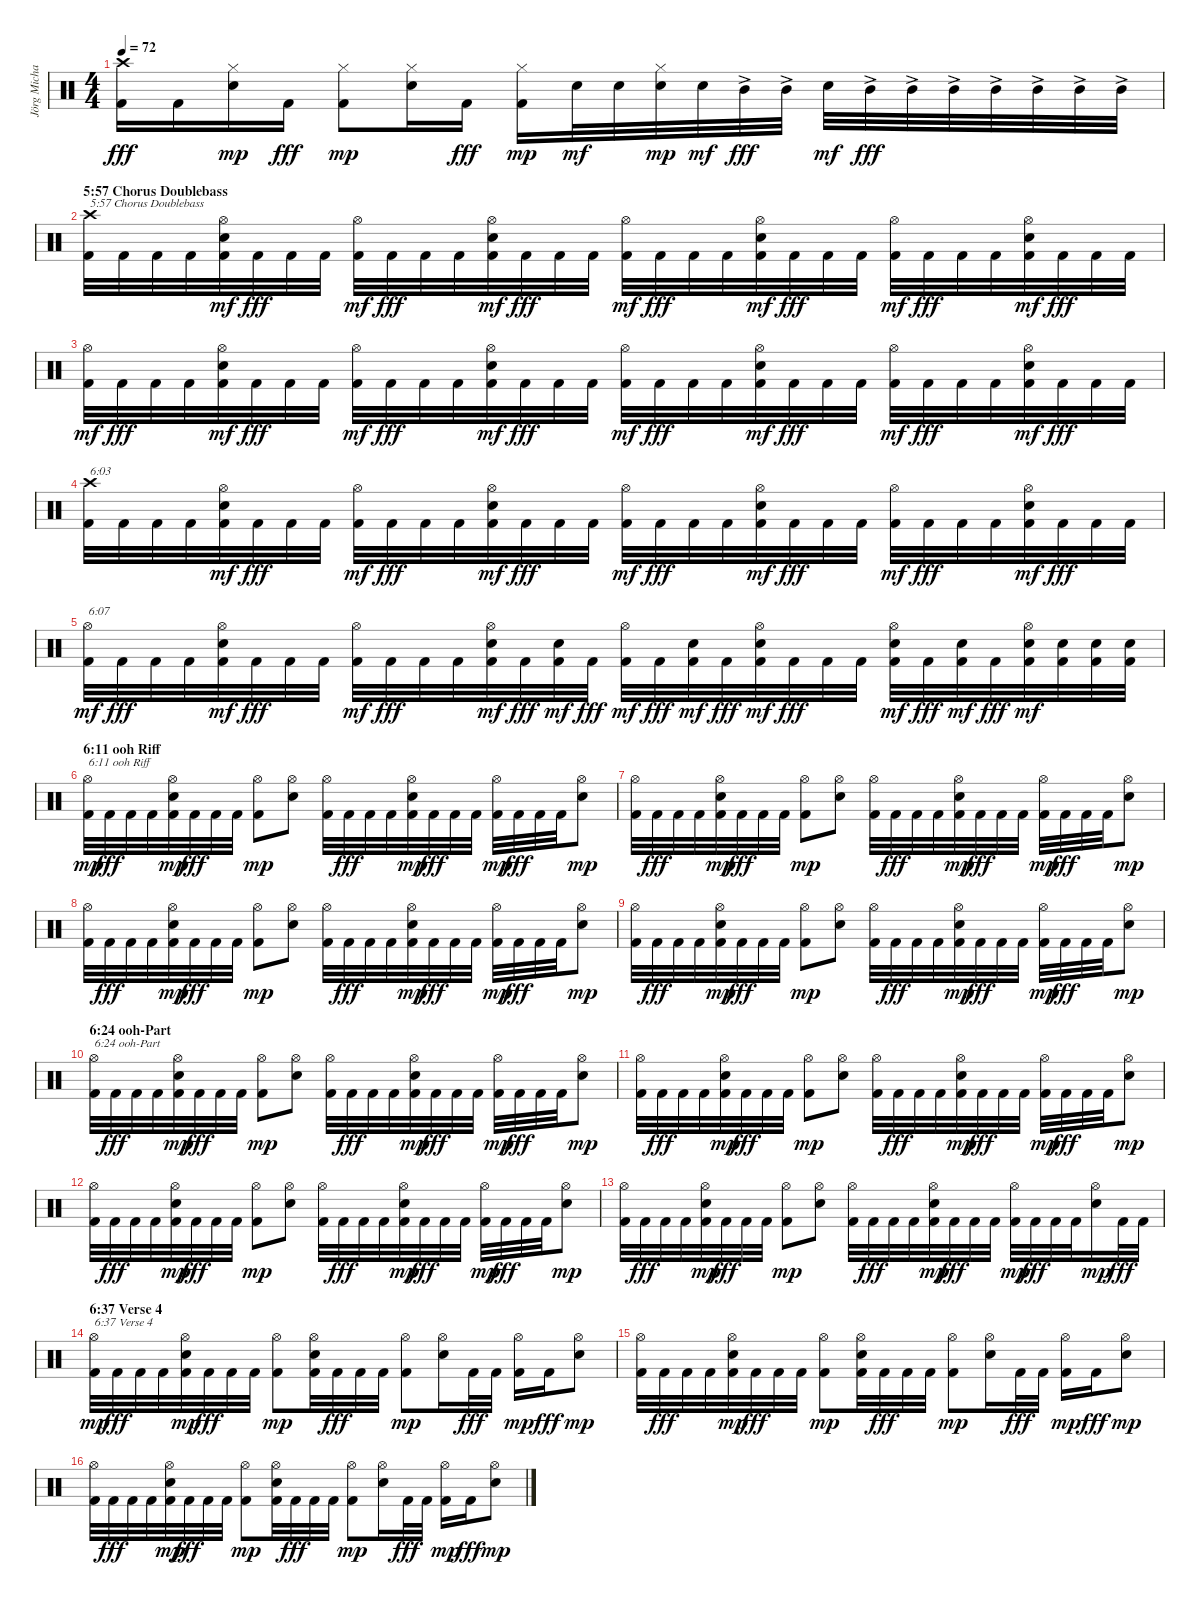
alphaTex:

\track ("Jörg Michael" "Jörg Micha") {instrument percussion}
\staff {score}
\articulation defaults
\ts (4 4)
\tempo 72
\clef neutral
\ks c
("Kick (hit) 2" "Crash high (hit)").16{dy fff} "Kick (hit) 2".16 ("Snare (hit) 2" "Hi-Hat (closed)").16{dy mp} "Kick (hit) 2".16{dy fff} ("Kick (hit) 2" "Hi-Hat (closed)").8{dy mp} ("Snare (hit) 2" "Hi-Hat (closed)").16 "Kick (hit) 2".16{dy fff} ("Kick (hit) 2" "Hi-Hat (closed)").16{dy mp} "Snare (hit) 2".32{dy mf} "Snare (hit) 2".32 ("Snare (hit) 2" "Hi-Hat (closed)").32{dy mp} "Snare (hit) 2".32{dy mf} "Mid Tom (hit)"{ac}.32{dy fff} "Mid Tom (hit)"{ac}.32 "Snare (hit) 2".32{dy mf} "Mid Tom (hit)"{ac}.32{dy fff} "Mid Tom (hit)"{ac}.32 "Mid Tom (hit)"{ac}.32 "Mid Tom (hit)"{ac}.32 "Mid Tom (hit)"{ac}.32 "Mid Tom (hit)"{ac}.32 "Mid Tom (hit)"{ac}.32 |
\section ("" "5:57 Chorus Doublebass")
("Kick (hit) 2" "Crash high (hit)").32{txt "5:57 Chorus Doublebass"} "Kick (hit) 2".32 "Kick (hit) 2".32 "Kick (hit) 2".32 ("Kick (hit) 2" "Snare (hit) 2" "Hi-Hat (open)").32{dy mf} "Kick (hit) 2".32{dy fff} "Kick (hit) 2".32 "Kick (hit) 2".32 ("Kick (hit) 2" "Hi-Hat (open)").32{dy mf} "Kick (hit) 2".32{dy fff} "Kick (hit) 2".32 "Kick (hit) 2".32 ("Kick (hit) 2" "Snare (hit) 2" "Hi-Hat (open)").32{dy mf} "Kick (hit) 2".32{dy fff} "Kick (hit) 2".32 "Kick (hit) 2".32 ("Kick (hit) 2" "Hi-Hat (open)").32{dy mf} "Kick (hit) 2".32{dy fff} "Kick (hit) 2".32 "Kick (hit) 2".32 ("Kick (hit) 2" "Snare (hit) 2" "Hi-Hat (open)").32{dy mf} "Kick (hit) 2".32{dy fff} "Kick (hit) 2".32 "Kick (hit) 2".32 ("Kick (hit) 2" "Hi-Hat (open)").32{dy mf} "Kick (hit) 2".32{dy fff} "Kick (hit) 2".32 "Kick (hit) 2".32 ("Kick (hit) 2" "Snare (hit) 2" "Hi-Hat (open)").32{dy mf} "Kick (hit) 2".32{dy fff} "Kick (hit) 2".32 "Kick (hit) 2".32 |
("Kick (hit) 2" "Hi-Hat (open)").32{dy mf} "Kick (hit) 2".32{dy fff} "Kick (hit) 2".32 "Kick (hit) 2".32 ("Kick (hit) 2" "Snare (hit) 2" "Hi-Hat (open)").32{dy mf} "Kick (hit) 2".32{dy fff} "Kick (hit) 2".32 "Kick (hit) 2".32 ("Kick (hit) 2" "Hi-Hat (open)").32{dy mf} "Kick (hit) 2".32{dy fff} "Kick (hit) 2".32 "Kick (hit) 2".32 ("Kick (hit) 2" "Snare (hit) 2" "Hi-Hat (open)").32{dy mf} "Kick (hit) 2".32{dy fff} "Kick (hit) 2".32 "Kick (hit) 2".32 ("Kick (hit) 2" "Hi-Hat (open)").32{dy mf} "Kick (hit) 2".32{dy fff} "Kick (hit) 2".32 "Kick (hit) 2".32 ("Kick (hit) 2" "Snare (hit) 2" "Hi-Hat (open)").32{dy mf} "Kick (hit) 2".32{dy fff} "Kick (hit) 2".32 "Kick (hit) 2".32 ("Kick (hit) 2" "Hi-Hat (open)").32{dy mf} "Kick (hit) 2".32{dy fff} "Kick (hit) 2".32 "Kick (hit) 2".32 ("Kick (hit) 2" "Snare (hit) 2" "Hi-Hat (open)").32{dy mf} "Kick (hit) 2".32{dy fff} "Kick (hit) 2".32 "Kick (hit) 2".32 |
("Kick (hit) 2" "Crash high (hit)").32{txt "6:03"} "Kick (hit) 2".32 "Kick (hit) 2".32 "Kick (hit) 2".32 ("Kick (hit) 2" "Snare (hit) 2" "Hi-Hat (open)").32{dy mf} "Kick (hit) 2".32{dy fff} "Kick (hit) 2".32 "Kick (hit) 2".32 ("Kick (hit) 2" "Hi-Hat (open)").32{dy mf} "Kick (hit) 2".32{dy fff} "Kick (hit) 2".32 "Kick (hit) 2".32 ("Kick (hit) 2" "Snare (hit) 2" "Hi-Hat (open)").32{dy mf} "Kick (hit) 2".32{dy fff} "Kick (hit) 2".32 "Kick (hit) 2".32 ("Kick (hit) 2" "Hi-Hat (open)").32{dy mf} "Kick (hit) 2".32{dy fff} "Kick (hit) 2".32 "Kick (hit) 2".32 ("Kick (hit) 2" "Snare (hit) 2" "Hi-Hat (open)").32{dy mf} "Kick (hit) 2".32{dy fff} "Kick (hit) 2".32 "Kick (hit) 2".32 ("Kick (hit) 2" "Hi-Hat (open)").32{dy mf} "Kick (hit) 2".32{dy fff} "Kick (hit) 2".32 "Kick (hit) 2".32 ("Kick (hit) 2" "Snare (hit) 2" "Hi-Hat (open)").32{dy mf} "Kick (hit) 2".32{dy fff} "Kick (hit) 2".32 "Kick (hit) 2".32 |
("Kick (hit) 2" "Hi-Hat (open)").32{txt "6:07" dy mf} "Kick (hit) 2".32{dy fff} "Kick (hit) 2".32 "Kick (hit) 2".32 ("Kick (hit) 2" "Snare (hit) 2" "Hi-Hat (open)").32{dy mf} "Kick (hit) 2".32{dy fff} "Kick (hit) 2".32 "Kick (hit) 2".32 ("Kick (hit) 2" "Hi-Hat (open)").32{dy mf} "Kick (hit) 2".32{dy fff} "Kick (hit) 2".32 "Kick (hit) 2".32 ("Kick (hit) 2" "Snare (hit) 2" "Hi-Hat (open)").32{dy mf} "Kick (hit) 2".32{dy fff} ("Kick (hit) 2" "Snare (hit) 2").32{dy mf} "Kick (hit) 2".32{dy fff} ("Kick (hit) 2" "Hi-Hat (open)").32{dy mf} "Kick (hit) 2".32{dy fff} ("Kick (hit) 2" "Snare (hit) 2").32{dy mf} "Kick (hit) 2".32{dy fff} ("Kick (hit) 2" "Snare (hit) 2" "Hi-Hat (open)").32{dy mf} "Kick (hit) 2".32{dy fff} "Kick (hit) 2".32 "Kick (hit) 2".32 ("Kick (hit) 2" "Snare (hit) 2" "Hi-Hat (open)").32{dy mf} "Kick (hit) 2".32{dy fff} ("Kick (hit) 2" "Snare (hit) 2").32{dy mf} "Kick (hit) 2".32{dy fff} ("Kick (hit) 2" "Snare (hit) 2" "Hi-Hat (open)").32{dy mf} ("Kick (hit) 2" "Snare (hit) 2").32 ("Kick (hit) 2" "Snare (hit) 2").32 ("Kick (hit) 2" "Snare (hit) 2").32 |
\section ("" "6:11 ooh Riff")
("Kick (hit) 2" "Hi-Hat (open)").32{txt "6:11 ooh Riff" dy mp} "Kick (hit) 2".32{dy fff} "Kick (hit) 2".32 "Kick (hit) 2".32 ("Kick (hit) 2" "Snare (hit) 2" "Hi-Hat (open)").32{dy mp} "Kick (hit) 2".32{dy fff} "Kick (hit) 2".32 "Kick (hit) 2".32 ("Kick (hit) 2" "Hi-Hat (open)").8{dy mp} ("Snare (hit) 2" "Hi-Hat (open)").8 ("Kick (hit) 2" "Hi-Hat (open)").32 "Kick (hit) 2".32{dy fff} "Kick (hit) 2".32 "Kick (hit) 2".32 ("Kick (hit) 2" "Snare (hit) 2" "Hi-Hat (open)").32{dy mp} "Kick (hit) 2".32{dy fff} "Kick (hit) 2".32 "Kick (hit) 2".32 ("Kick (hit) 2" "Hi-Hat (open)").32{dy mp} "Kick (hit) 2".32{dy fff} "Kick (hit) 2".32 "Kick (hit) 2".32 ("Snare (hit) 2" "Hi-Hat (open)").8{dy mp} |
("Kick (hit) 2" "Hi-Hat (open)").32 "Kick (hit) 2".32{dy fff} "Kick (hit) 2".32 "Kick (hit) 2".32 ("Kick (hit) 2" "Snare (hit) 2" "Hi-Hat (open)").32{dy mp} "Kick (hit) 2".32{dy fff} "Kick (hit) 2".32 "Kick (hit) 2".32 ("Kick (hit) 2" "Hi-Hat (open)").8{dy mp} ("Snare (hit) 2" "Hi-Hat (open)").8 ("Kick (hit) 2" "Hi-Hat (open)").32 "Kick (hit) 2".32{dy fff} "Kick (hit) 2".32 "Kick (hit) 2".32 ("Kick (hit) 2" "Snare (hit) 2" "Hi-Hat (open)").32{dy mp} "Kick (hit) 2".32{dy fff} "Kick (hit) 2".32 "Kick (hit) 2".32 ("Kick (hit) 2" "Hi-Hat (open)").32{dy mp} "Kick (hit) 2".32{dy fff} "Kick (hit) 2".32 "Kick (hit) 2".32 ("Snare (hit) 2" "Hi-Hat (open)").8{dy mp} |
("Kick (hit) 2" "Hi-Hat (open)").32 "Kick (hit) 2".32{dy fff} "Kick (hit) 2".32 "Kick (hit) 2".32 ("Kick (hit) 2" "Snare (hit) 2" "Hi-Hat (open)").32{dy mp} "Kick (hit) 2".32{dy fff} "Kick (hit) 2".32 "Kick (hit) 2".32 ("Kick (hit) 2" "Hi-Hat (open)").8{dy mp} ("Snare (hit) 2" "Hi-Hat (open)").8 ("Kick (hit) 2" "Hi-Hat (open)").32 "Kick (hit) 2".32{dy fff} "Kick (hit) 2".32 "Kick (hit) 2".32 ("Kick (hit) 2" "Snare (hit) 2" "Hi-Hat (open)").32{dy mp} "Kick (hit) 2".32{dy fff} "Kick (hit) 2".32 "Kick (hit) 2".32 ("Kick (hit) 2" "Hi-Hat (open)").32{dy mp} "Kick (hit) 2".32{dy fff} "Kick (hit) 2".32 "Kick (hit) 2".32 ("Snare (hit) 2" "Hi-Hat (open)").8{dy mp} |
("Kick (hit) 2" "Hi-Hat (open)").32 "Kick (hit) 2".32{dy fff} "Kick (hit) 2".32 "Kick (hit) 2".32 ("Kick (hit) 2" "Snare (hit) 2" "Hi-Hat (open)").32{dy mp} "Kick (hit) 2".32{dy fff} "Kick (hit) 2".32 "Kick (hit) 2".32 ("Kick (hit) 2" "Hi-Hat (open)").8{dy mp} ("Snare (hit) 2" "Hi-Hat (open)").8 ("Kick (hit) 2" "Hi-Hat (open)").32 "Kick (hit) 2".32{dy fff} "Kick (hit) 2".32 "Kick (hit) 2".32 ("Kick (hit) 2" "Snare (hit) 2" "Hi-Hat (open)").32{dy mp} "Kick (hit) 2".32{dy fff} "Kick (hit) 2".32 "Kick (hit) 2".32 ("Kick (hit) 2" "Hi-Hat (open)").32{dy mp} "Kick (hit) 2".32{dy fff} "Kick (hit) 2".32 "Kick (hit) 2".32 ("Snare (hit) 2" "Hi-Hat (open)").8{dy mp} |
\section ("" "6:24 ooh-Part")
("Kick (hit) 2" "Hi-Hat (open)").32{txt "6:24 ooh-Part"} "Kick (hit) 2".32{dy fff} "Kick (hit) 2".32 "Kick (hit) 2".32 ("Kick (hit) 2" "Snare (hit) 2" "Hi-Hat (open)").32{dy mp} "Kick (hit) 2".32{dy fff} "Kick (hit) 2".32 "Kick (hit) 2".32 ("Kick (hit) 2" "Hi-Hat (open)").8{dy mp} ("Snare (hit) 2" "Hi-Hat (open)").8 ("Kick (hit) 2" "Hi-Hat (open)").32 "Kick (hit) 2".32{dy fff} "Kick (hit) 2".32 "Kick (hit) 2".32 ("Kick (hit) 2" "Snare (hit) 2" "Hi-Hat (open)").32{dy mp} "Kick (hit) 2".32{dy fff} "Kick (hit) 2".32 "Kick (hit) 2".32 ("Kick (hit) 2" "Hi-Hat (open)").32{dy mp} "Kick (hit) 2".32{dy fff} "Kick (hit) 2".32 "Kick (hit) 2".32 ("Snare (hit) 2" "Hi-Hat (open)").8{dy mp} |
("Kick (hit) 2" "Hi-Hat (open)").32 "Kick (hit) 2".32{dy fff} "Kick (hit) 2".32 "Kick (hit) 2".32 ("Kick (hit) 2" "Snare (hit) 2" "Hi-Hat (open)").32{dy mp} "Kick (hit) 2".32{dy fff} "Kick (hit) 2".32 "Kick (hit) 2".32 ("Kick (hit) 2" "Hi-Hat (open)").8{dy mp} ("Snare (hit) 2" "Hi-Hat (open)").8 ("Kick (hit) 2" "Hi-Hat (open)").32 "Kick (hit) 2".32{dy fff} "Kick (hit) 2".32 "Kick (hit) 2".32 ("Kick (hit) 2" "Snare (hit) 2" "Hi-Hat (open)").32{dy mp} "Kick (hit) 2".32{dy fff} "Kick (hit) 2".32 "Kick (hit) 2".32 ("Kick (hit) 2" "Hi-Hat (open)").32{dy mp} "Kick (hit) 2".32{dy fff} "Kick (hit) 2".32 "Kick (hit) 2".32 ("Snare (hit) 2" "Hi-Hat (open)").8{dy mp} |
("Kick (hit) 2" "Hi-Hat (open)").32 "Kick (hit) 2".32{dy fff} "Kick (hit) 2".32 "Kick (hit) 2".32 ("Kick (hit) 2" "Snare (hit) 2" "Hi-Hat (open)").32{dy mp} "Kick (hit) 2".32{dy fff} "Kick (hit) 2".32 "Kick (hit) 2".32 ("Kick (hit) 2" "Hi-Hat (open)").8{dy mp} ("Snare (hit) 2" "Hi-Hat (open)").8 ("Kick (hit) 2" "Hi-Hat (open)").32 "Kick (hit) 2".32{dy fff} "Kick (hit) 2".32 "Kick (hit) 2".32 ("Kick (hit) 2" "Snare (hit) 2" "Hi-Hat (open)").32{dy mp} "Kick (hit) 2".32{dy fff} "Kick (hit) 2".32 "Kick (hit) 2".32 ("Kick (hit) 2" "Hi-Hat (open)").32{dy mp} "Kick (hit) 2".32{dy fff} "Kick (hit) 2".32 "Kick (hit) 2".32 ("Snare (hit) 2" "Hi-Hat (open)").8{dy mp} |
("Kick (hit) 2" "Hi-Hat (open)").32 "Kick (hit) 2".32{dy fff} "Kick (hit) 2".32 "Kick (hit) 2".32 ("Kick (hit) 2" "Snare (hit) 2" "Hi-Hat (open)").32{dy mp} "Kick (hit) 2".32{dy fff} "Kick (hit) 2".32 "Kick (hit) 2".32 ("Kick (hit) 2" "Hi-Hat (open)").8{dy mp} ("Snare (hit) 2" "Hi-Hat (open)").8 ("Kick (hit) 2" "Hi-Hat (open)").32 "Kick (hit) 2".32{dy fff} "Kick (hit) 2".32 "Kick (hit) 2".32 ("Kick (hit) 2" "Snare (hit) 2" "Hi-Hat (open)").32{dy mp} "Kick (hit) 2".32{dy fff} "Kick (hit) 2".32 "Kick (hit) 2".32 ("Kick (hit) 2" "Hi-Hat (open)").32{dy mp} "Kick (hit) 2".32{dy fff} "Kick (hit) 2".32 "Kick (hit) 2".32 ("Snare (hit) 2" "Hi-Hat (open)").16{dy mp} "Kick (hit) 2".32{dy fff} "Kick (hit) 2".32 |
\section ("" "6:37 Verse 4")
("Kick (hit) 2" "Hi-Hat (open)").32{txt "6:37 Verse 4" dy mp} "Kick (hit) 2".32{dy fff} "Kick (hit) 2".32 "Kick (hit) 2".32 ("Kick (hit) 2" "Snare (hit) 2" "Hi-Hat (open)").32{dy mp} "Kick (hit) 2".32{dy fff} "Kick (hit) 2".32 "Kick (hit) 2".32 ("Kick (hit) 2" "Hi-Hat (open)").8{dy mp} ("Kick (hit) 2" "Snare (hit) 2" "Hi-Hat (open)").32 "Kick (hit) 2".32{dy fff} "Kick (hit) 2".32 "Kick (hit) 2".32 ("Kick (hit) 2" "Hi-Hat (open)").8{dy mp} ("Snare (hit) 2" "Hi-Hat (open)").16 "Kick (hit) 2".32{dy fff} "Kick (hit) 2".32 ("Kick (hit) 2" "Hi-Hat (open)").16{dy mp} "Kick (hit) 2".16{dy fff} ("Snare (hit) 2" "Hi-Hat (open)").8{dy mp} |
("Kick (hit) 2" "Hi-Hat (open)").32 "Kick (hit) 2".32{dy fff} "Kick (hit) 2".32 "Kick (hit) 2".32 ("Kick (hit) 2" "Snare (hit) 2" "Hi-Hat (open)").32{dy mp} "Kick (hit) 2".32{dy fff} "Kick (hit) 2".32 "Kick (hit) 2".32 ("Kick (hit) 2" "Hi-Hat (open)").8{dy mp} ("Kick (hit) 2" "Snare (hit) 2" "Hi-Hat (open)").32 "Kick (hit) 2".32{dy fff} "Kick (hit) 2".32 "Kick (hit) 2".32 ("Kick (hit) 2" "Hi-Hat (open)").8{dy mp} ("Snare (hit) 2" "Hi-Hat (open)").16 "Kick (hit) 2".32{dy fff} "Kick (hit) 2".32 ("Kick (hit) 2" "Hi-Hat (open)").16{dy mp} "Kick (hit) 2".16{dy fff} ("Snare (hit) 2" "Hi-Hat (open)").8{dy mp} |
("Kick (hit) 2" "Hi-Hat (open)").32 "Kick (hit) 2".32{dy fff} "Kick (hit) 2".32 "Kick (hit) 2".32 ("Kick (hit) 2" "Snare (hit) 2" "Hi-Hat (open)").32{dy mp} "Kick (hit) 2".32{dy fff} "Kick (hit) 2".32 "Kick (hit) 2".32 ("Kick (hit) 2" "Hi-Hat (open)").8{dy mp} ("Kick (hit) 2" "Snare (hit) 2" "Hi-Hat (open)").32 "Kick (hit) 2".32{dy fff} "Kick (hit) 2".32 "Kick (hit) 2".32 ("Kick (hit) 2" "Hi-Hat (open)").8{dy mp} ("Snare (hit) 2" "Hi-Hat (open)").16 "Kick (hit) 2".32{dy fff} "Kick (hit) 2".32 ("Kick (hit) 2" "Hi-Hat (open)").16{dy mp} "Kick (hit) 2".16{dy fff} ("Snare (hit) 2" "Hi-Hat (open)").8{dy mp}
